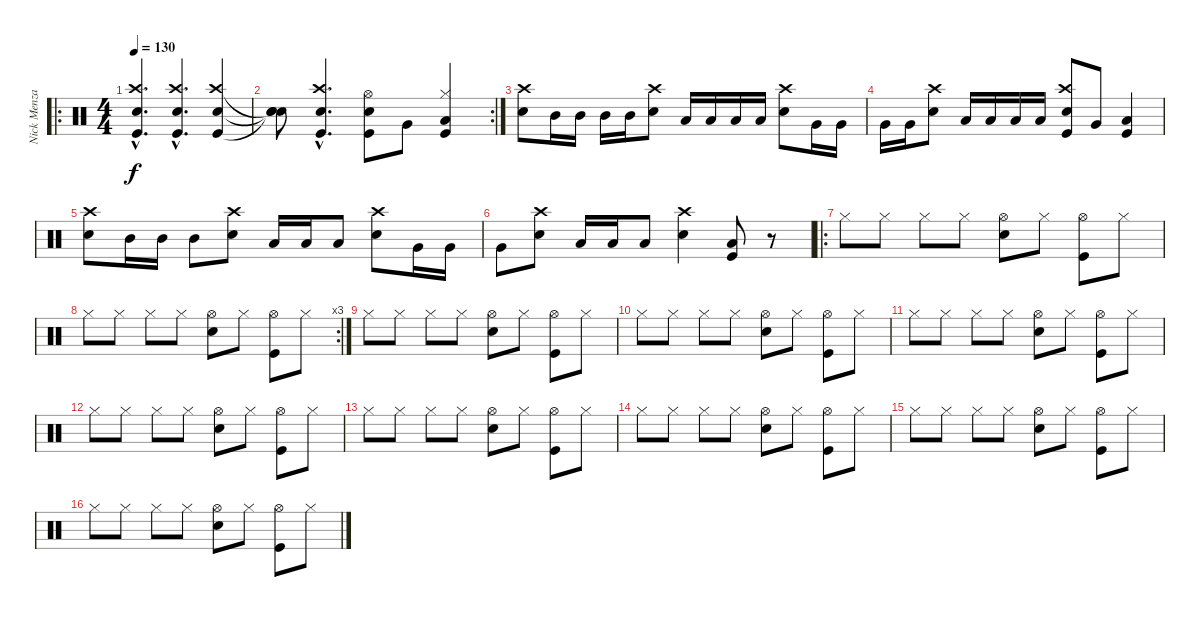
\track ("Nick Menza" "Nick Menza") {instrument percussion}
\staff {score}
\articulation defaults
\ro
\ts (4 4)
\tempo 130
\clef neutral
\ks c
("Snare (hit) 2"{hac} "Crash high (hit)"{hac} "Kick (hit)"{hac}).4{d dy f} ("Snare (hit) 2"{hac} "Crash high (hit)"{hac} "Kick (hit)"{hac}).4{d} ("Snare (hit) 2" "Crash high (hit)" "Kick (hit)").4 |
\rc 2
("Snare (hit)"{t} "Snare (hit)"{t} "Snare (hit)"{t}).8 ("Snare (hit) 2"{hac} "Crash high (hit)"{hac} "Kick (hit)"{hac}).4{d} ("Snare (hit) 2" "Kick (hit)" "Hi-Hat (open)").8 "Very Low Tom (hit)".8 ("Hi-Hat (closed)" "Low Floor Tom (hit)" "Kick (hit)").4 |
("Crash high (hit)" "Snare (hit) 2").8 "Mid Tom (hit)".16 "Mid Tom (hit)".16 "Mid Tom (hit)".16 "Mid Tom (hit)".16 ("Crash high (hit)" "Snare (hit) 2").8 "Low Tom (hit)".16 "Low Tom (hit)".16 "Low Tom (hit)".16 "Low Tom (hit)".16 ("Crash high (hit)" "Snare (hit) 2").8 "Very Low Tom (hit)".16 "Very Low Tom (hit)".16 |
"Very Low Tom (hit)".16 "Very Low Tom (hit)".16 ("Crash high (hit)" "Snare (hit) 2").8 "Low Floor Tom (hit)".16 "Low Floor Tom (hit)".16 "Low Floor Tom (hit)".16 "Low Floor Tom (hit)".16 ("Crash high (hit)" "Snare (hit) 2" "Kick (hit)").8 "Very Low Tom (hit)".8 ("Low Floor Tom (hit)" "Kick (hit)").4 |
("Crash high (hit)" "Snare (hit) 2").8 "Mid Tom (hit)".16 "Mid Tom (hit)".16 "Mid Tom (hit)".8 ("Crash high (hit)" "Snare (hit) 2").8 "Low Tom (hit)".16 "Low Tom (hit)".16 "Low Tom (hit)".8 ("Crash high (hit)" "Snare (hit) 2").8 "Very Low Tom (hit)".16 "Very Low Tom (hit)".16 |
"Very Low Tom (hit)".8 ("Crash high (hit)" "Snare (hit) 2").8 "Low Floor Tom (hit)".16 "Low Floor Tom (hit)".16 "Low Floor Tom (hit)".8 ("Crash high (hit)" "Snare (hit) 2").4 ("Low Floor Tom (hit)" "Kick (hit)").8 r.8 |
\ro "Hi-Hat (closed)".8 "Hi-Hat (closed)".8 "Hi-Hat (closed)".8 "Hi-Hat (closed)".8
("Snare (hit) 2" "Hi-Hat (open)").8 "Hi-Hat (closed)".8 ("Hi-Hat (open)" "Kick (hit)").8 "Hi-Hat (closed)".8 |
\rc 3 "Hi-Hat (closed)".8 "Hi-Hat (closed)".8 "Hi-Hat (closed)".8 "Hi-Hat (closed)".8
("Snare (hit) 2" "Hi-Hat (open)").8 "Hi-Hat (closed)".8 ("Hi-Hat (open)" "Kick (hit)").8 "Hi-Hat (closed)".8 |
"Hi-Hat (closed)".8 "Hi-Hat (closed)".8 "Hi-Hat (closed)".8 "Hi-Hat (closed)".8 ("Snare (hit) 2" "Hi-Hat (open)").8 "Hi-Hat (closed)".8 ("Hi-Hat (open)" "Kick (hit)").8 "Hi-Hat (closed)".8 |
"Hi-Hat (closed)".8 "Hi-Hat (closed)".8 "Hi-Hat (closed)".8 "Hi-Hat (closed)".8 ("Snare (hit) 2" "Hi-Hat (open)").8 "Hi-Hat (closed)".8 ("Hi-Hat (open)" "Kick (hit)").8 "Hi-Hat (closed)".8 |
"Hi-Hat (closed)".8 "Hi-Hat (closed)".8 "Hi-Hat (closed)".8 "Hi-Hat (closed)".8 ("Snare (hit) 2" "Hi-Hat (open)").8 "Hi-Hat (closed)".8 ("Hi-Hat (open)" "Kick (hit)").8 "Hi-Hat (closed)".8 |
"Hi-Hat (closed)".8 "Hi-Hat (closed)".8 "Hi-Hat (closed)".8 "Hi-Hat (closed)".8 ("Snare (hit) 2" "Hi-Hat (open)").8 "Hi-Hat (closed)".8 ("Hi-Hat (open)" "Kick (hit)").8 "Hi-Hat (closed)".8 |
"Hi-Hat (closed)".8 "Hi-Hat (closed)".8 "Hi-Hat (closed)".8 "Hi-Hat (closed)".8 ("Snare (hit) 2" "Hi-Hat (open)").8 "Hi-Hat (closed)".8 ("Hi-Hat (open)" "Kick (hit)").8 "Hi-Hat (closed)".8 |
"Hi-Hat (closed)".8 "Hi-Hat (closed)".8 "Hi-Hat (closed)".8 "Hi-Hat (closed)".8 ("Snare (hit) 2" "Hi-Hat (open)").8 "Hi-Hat (closed)".8 ("Hi-Hat (open)" "Kick (hit)").8 "Hi-Hat (closed)".8 |
"Hi-Hat (closed)".8 "Hi-Hat (closed)".8 "Hi-Hat (closed)".8 "Hi-Hat (closed)".8 ("Snare (hit) 2" "Hi-Hat (open)").8 "Hi-Hat (closed)".8 ("Hi-Hat (open)" "Kick (hit)").8 "Hi-Hat (closed)".8 |
"Hi-Hat (closed)".8 "Hi-Hat (closed)".8 "Hi-Hat (closed)".8 "Hi-Hat (closed)".8 ("Snare (hit) 2" "Hi-Hat (open)").8 "Hi-Hat (closed)".8 ("Hi-Hat (open)" "Kick (hit)").8 "Hi-Hat (closed)".8
